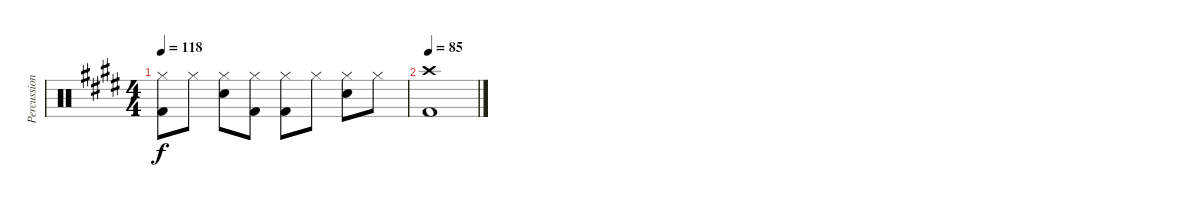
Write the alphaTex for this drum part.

\track ("Percussion" "Percussion") {instrument percussion}
\staff {score}
\articulation defaults
\ts (4 4)
\tempo 118
\clef neutral
\ks e
("Hi-Hat (closed)" "Kick (hit) 2").8{dy f} "Hi-Hat (closed)".8 ("Hi-Hat (closed)" "Snare (hit) 2").8 ("Hi-Hat (closed)" "Kick (hit) 2").8 ("Hi-Hat (closed)" "Kick (hit) 2").8 "Hi-Hat (closed)".8 ("Hi-Hat (closed)" "Snare (hit) 2").8 "Hi-Hat (closed)".8 |
\tempo 85
("Crash high (hit)" "Kick (hit) 2").1
